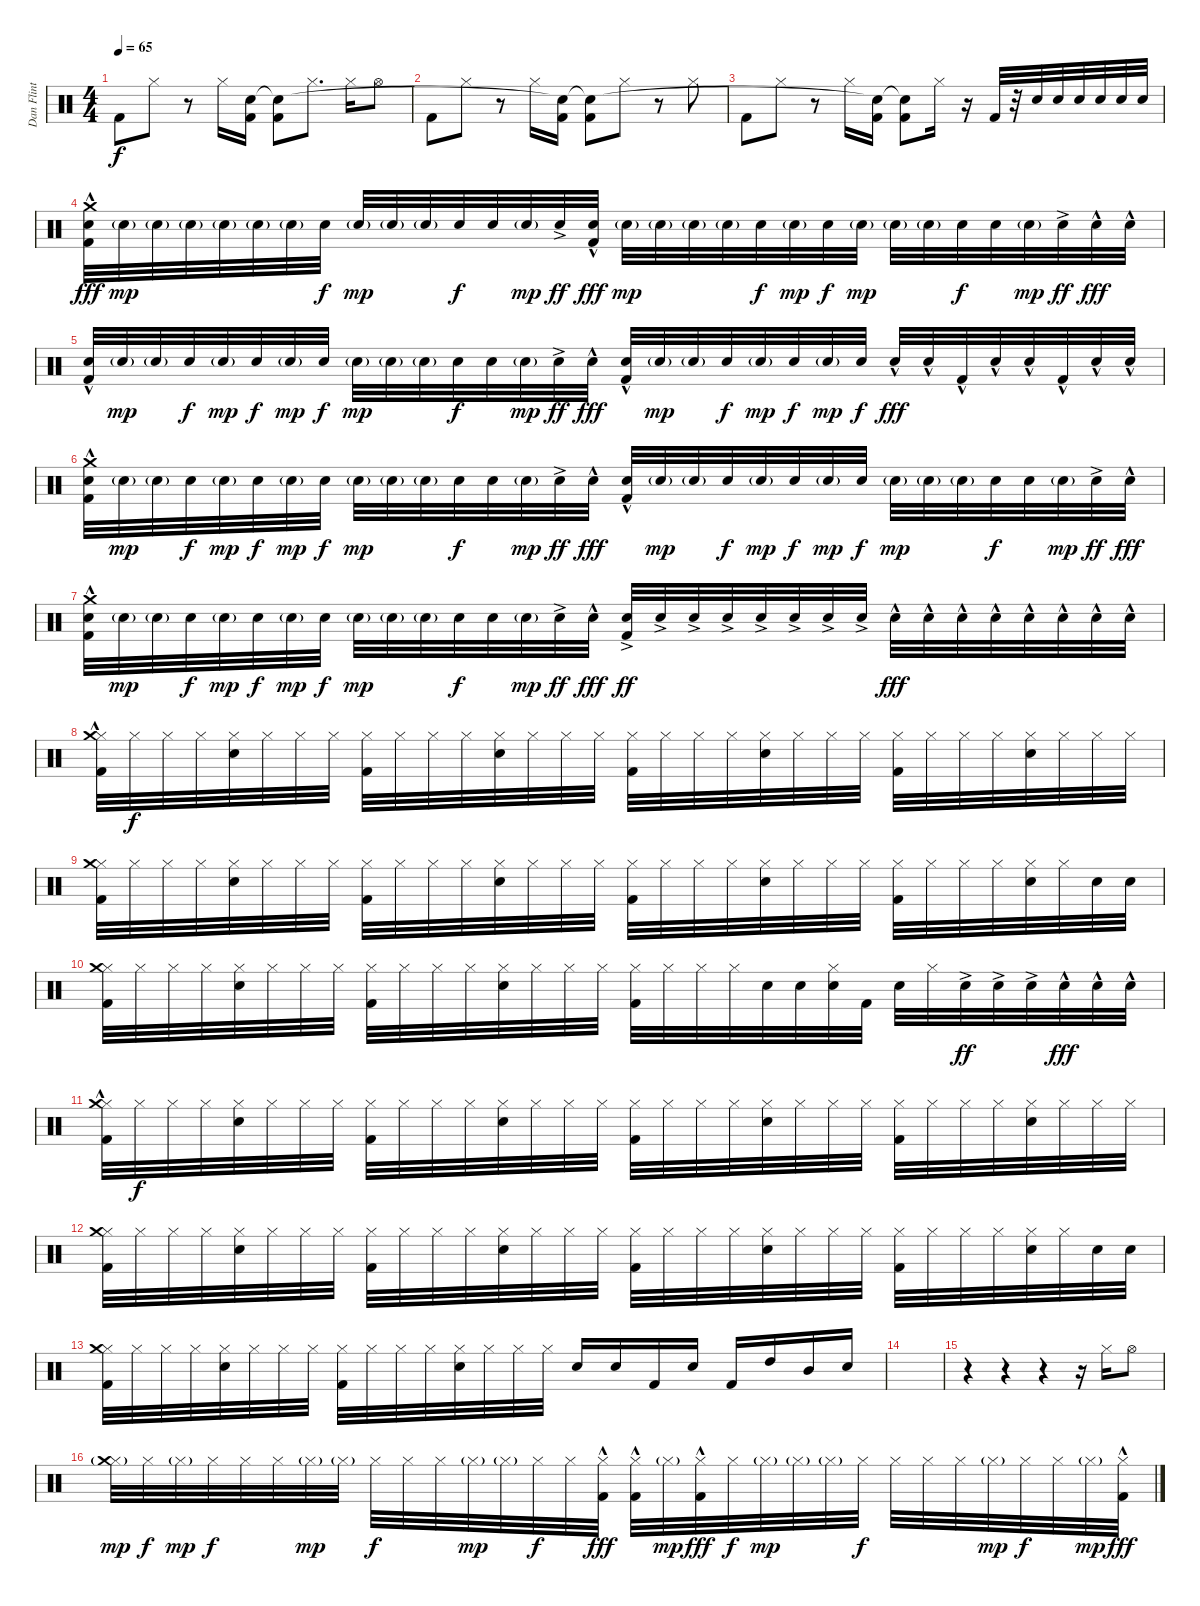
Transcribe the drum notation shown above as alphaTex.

\track ("Dan Flint" "Dan Flint") {instrument percussion}
\staff {score}
\articulation defaults
\ts (4 4)
\tempo 65
\clef neutral
\ks c "Kick (hit) 2".8{dy f} "Hi-Hat (closed)".8
r.8 "Hi-Hat (closed)".16 ("Kick (hit) 2" "Snare (hit)"{t}).16 ("Kick (hit) 2" "Snare (hit)"{t}).8 "Hi-Hat (closed)".8{d} "Hi-Hat (closed)".16 "Hi-Hat (open)".8 |
"Kick (hit) 2".8 "Hi-Hat (closed)".8 r.8 "Hi-Hat (closed)".16 ("Kick (hit) 2" "Snare (hit)"{t}).16 ("Kick (hit) 2" "Snare (hit)"{t}).8 "Hi-Hat (closed)".8 r.8 "Hi-Hat (closed)".8 |
"Kick (hit) 2".8 "Hi-Hat (closed)".8 r.8 "Hi-Hat (closed)".16 ("Kick (hit) 2" "Snare (hit)"{t}).16 ("Kick (hit) 2" "Snare (hit)"{t}).8 "Hi-Hat (closed)".16 r.16 "Kick (hit) 2".32 r.32 "Snare (hit) 2".32 "Snare (hit) 2".32 "Snare (hit) 2".32 "Snare (hit) 2".32 "Snare (hit) 2".32 "Snare (hit) 2".32 |
("Crash medium (hit)"{hac} "Snare (hit) 2"{hac} "Kick (hit) 2").32{dy fff} "Snare (hit) 2"{g}.32{dy mp} "Snare (hit) 2"{g}.32 "Snare (hit) 2"{g}.32 "Snare (hit) 2"{g}.32 "Snare (hit) 2"{g}.32 "Snare (hit) 2"{g}.32 "Snare (hit) 2".32{dy f} "Snare (hit) 2"{g}.32{dy mp} "Snare (hit) 2"{g}.32 "Snare (hit) 2"{g}.32 "Snare (hit) 2".32{dy f} "Snare (hit) 2".32 "Snare (hit) 2"{g}.32{dy mp} "Snare (hit) 2"{ac}.32{dy ff} ("Snare (hit) 2"{hac} "Kick (hit) 2").32{dy fff} "Snare (hit) 2"{g}.32{dy mp} "Snare (hit) 2"{g}.32 "Snare (hit) 2"{g}.32 "Snare (hit) 2"{g}.32 "Snare (hit) 2".32{dy f} "Snare (hit) 2"{g}.32{dy mp} "Snare (hit) 2".32{dy f} "Snare (hit) 2"{g}.32{dy mp} "Snare (hit) 2"{g}.32 "Snare (hit) 2"{g}.32 "Snare (hit) 2".32{dy f} "Snare (hit) 2".32 "Snare (hit) 2"{g}.32{dy mp} "Snare (hit) 2"{ac}.32{dy ff} "Snare (hit) 2"{hac}.32{dy fff} "Snare (hit) 2"{hac}.32 |
("Snare (hit) 2"{hac} "Kick (hit) 2").32 "Snare (hit) 2"{g}.32{dy mp} "Snare (hit) 2"{g}.32 "Snare (hit) 2".32{dy f} "Snare (hit) 2"{g}.32{dy mp} "Snare (hit) 2".32{dy f} "Snare (hit) 2"{g}.32{dy mp} "Snare (hit) 2".32{dy f} "Snare (hit) 2"{g}.32{dy mp} "Snare (hit) 2"{g}.32 "Snare (hit) 2"{g}.32 "Snare (hit) 2".32{dy f} "Snare (hit) 2".32 "Snare (hit) 2"{g}.32{dy mp} "Snare (hit) 2"{ac}.32{dy ff} "Snare (hit) 2"{hac}.32{dy fff} ("Snare (hit) 2"{hac} "Kick (hit) 2").32 "Snare (hit) 2"{g}.32{dy mp} "Snare (hit) 2"{g}.32 "Snare (hit) 2".32{dy f} "Snare (hit) 2"{g}.32{dy mp} "Snare (hit) 2".32{dy f} "Snare (hit) 2"{g}.32{dy mp} "Snare (hit) 2".32{dy f} "Snare (hit) 2"{hac}.32{dy fff} "Snare (hit) 2"{hac}.32 "Kick (hit) 2"{hac}.32 "Snare (hit) 2"{hac}.32 "Snare (hit) 2"{hac}.32 "Kick (hit) 2"{hac}.32 "Snare (hit) 2"{hac}.32 "Snare (hit) 2"{hac}.32 |
("Crash medium (hit)"{hac} "Snare (hit) 2"{hac} "Kick (hit) 2").32 "Snare (hit) 2"{g}.32{dy mp} "Snare (hit) 2"{g}.32 "Snare (hit) 2".32{dy f} "Snare (hit) 2"{g}.32{dy mp} "Snare (hit) 2".32{dy f} "Snare (hit) 2"{g}.32{dy mp} "Snare (hit) 2".32{dy f} "Snare (hit) 2"{g}.32{dy mp} "Snare (hit) 2"{g}.32 "Snare (hit) 2"{g}.32 "Snare (hit) 2".32{dy f} "Snare (hit) 2".32 "Snare (hit) 2"{g}.32{dy mp} "Snare (hit) 2"{ac}.32{dy ff} "Snare (hit) 2"{hac}.32{dy fff} ("Snare (hit) 2"{hac} "Kick (hit) 2").32 "Snare (hit) 2"{g}.32{dy mp} "Snare (hit) 2"{g}.32 "Snare (hit) 2".32{dy f} "Snare (hit) 2"{g}.32{dy mp} "Snare (hit) 2".32{dy f} "Snare (hit) 2"{g}.32{dy mp} "Snare (hit) 2".32{dy f} "Snare (hit) 2"{g}.32{dy mp} "Snare (hit) 2"{g}.32 "Snare (hit) 2"{g}.32 "Snare (hit) 2".32{dy f} "Snare (hit) 2".32 "Snare (hit) 2"{g}.32{dy mp} "Snare (hit) 2"{ac}.32{dy ff} "Snare (hit) 2"{hac}.32{dy fff} |
("Crash medium (hit)"{hac} "Snare (hit) 2"{hac} "Kick (hit) 2").32 "Snare (hit) 2"{g}.32{dy mp} "Snare (hit) 2"{g}.32 "Snare (hit) 2".32{dy f} "Snare (hit) 2"{g}.32{dy mp} "Snare (hit) 2".32{dy f} "Snare (hit) 2"{g}.32{dy mp} "Snare (hit) 2".32{dy f} "Snare (hit) 2"{g}.32{dy mp} "Snare (hit) 2"{g}.32 "Snare (hit) 2"{g}.32 "Snare (hit) 2".32{dy f} "Snare (hit) 2".32 "Snare (hit) 2"{g}.32{dy mp} "Snare (hit) 2"{ac}.32{dy ff} "Snare (hit) 2"{hac}.32{dy fff} ("Snare (hit) 2"{ac} "Kick (hit) 2"{ac}).32{dy ff} "Snare (hit) 2"{ac}.32 "Snare (hit) 2"{ac}.32 "Snare (hit) 2"{ac}.32 "Snare (hit) 2"{ac}.32 "Snare (hit) 2"{ac}.32 "Snare (hit) 2"{ac}.32 "Snare (hit) 2"{ac}.32 "Snare (hit) 2"{hac}.32{dy fff} "Snare (hit) 2"{hac}.32 "Snare (hit) 2"{hac}.32 "Snare (hit) 2"{hac}.32 "Snare (hit) 2"{hac}.32 "Snare (hit) 2"{hac}.32 "Snare (hit) 2"{hac}.32 "Snare (hit) 2"{hac}.32 |
("Hi-Hat (closed)" "Kick (hit) 2" "Crash medium (hit)"{hac}).32 "Hi-Hat (closed)".32{dy f} "Hi-Hat (closed)".32 "Hi-Hat (closed)".32 ("Hi-Hat (closed)" "Snare (hit) 2").32 "Hi-Hat (closed)".32 "Hi-Hat (closed)".32 "Hi-Hat (closed)".32 ("Hi-Hat (closed)" "Kick (hit) 2").32 "Hi-Hat (closed)".32 "Hi-Hat (closed)".32 "Hi-Hat (closed)".32 ("Hi-Hat (closed)" "Snare (hit) 2").32 "Hi-Hat (closed)".32 "Hi-Hat (closed)".32 "Hi-Hat (closed)".32 ("Hi-Hat (closed)" "Kick (hit) 2").32 "Hi-Hat (closed)".32 "Hi-Hat (closed)".32 "Hi-Hat (closed)".32 ("Hi-Hat (closed)" "Snare (hit) 2").32 "Hi-Hat (closed)".32 "Hi-Hat (closed)".32 "Hi-Hat (closed)".32 ("Hi-Hat (closed)" "Kick (hit) 2").32 "Hi-Hat (closed)".32 "Hi-Hat (closed)".32 "Hi-Hat (closed)".32 ("Hi-Hat (closed)" "Snare (hit) 2").32 "Hi-Hat (closed)".32 "Hi-Hat (closed)".32 "Hi-Hat (closed)".32 |
("Hi-Hat (closed)" "Kick (hit) 2" "Crash medium (hit)").32 "Hi-Hat (closed)".32 "Hi-Hat (closed)".32 "Hi-Hat (closed)".32 ("Hi-Hat (closed)" "Snare (hit) 2").32 "Hi-Hat (closed)".32 "Hi-Hat (closed)".32 "Hi-Hat (closed)".32 ("Hi-Hat (closed)" "Kick (hit) 2").32 "Hi-Hat (closed)".32 "Hi-Hat (closed)".32 "Hi-Hat (closed)".32 ("Hi-Hat (closed)" "Snare (hit) 2").32 "Hi-Hat (closed)".32 "Hi-Hat (closed)".32 "Hi-Hat (closed)".32 ("Hi-Hat (closed)" "Kick (hit) 2").32 "Hi-Hat (closed)".32 "Hi-Hat (closed)".32 "Hi-Hat (closed)".32 ("Hi-Hat (closed)" "Snare (hit) 2").32 "Hi-Hat (closed)".32 "Hi-Hat (closed)".32 "Hi-Hat (closed)".32 ("Hi-Hat (closed)" "Kick (hit) 2").32 "Hi-Hat (closed)".32 "Hi-Hat (closed)".32 "Hi-Hat (closed)".32 ("Hi-Hat (closed)" "Snare (hit) 2").32 "Hi-Hat (closed)".32 "Snare (hit) 2".32 "Snare (hit) 2".32 |
("Hi-Hat (closed)" "Kick (hit) 2" "Crash medium (hit)").32 "Hi-Hat (closed)".32 "Hi-Hat (closed)".32 "Hi-Hat (closed)".32 ("Hi-Hat (closed)" "Snare (hit) 2").32 "Hi-Hat (closed)".32 "Hi-Hat (closed)".32 "Hi-Hat (closed)".32 ("Hi-Hat (closed)" "Kick (hit) 2").32 "Hi-Hat (closed)".32 "Hi-Hat (closed)".32 "Hi-Hat (closed)".32 ("Hi-Hat (closed)" "Snare (hit) 2").32 "Hi-Hat (closed)".32 "Hi-Hat (closed)".32 "Hi-Hat (closed)".32 ("Hi-Hat (closed)" "Kick (hit) 2").32 "Hi-Hat (closed)".32 "Hi-Hat (closed)".32 "Hi-Hat (closed)".32 "Snare (hit) 2".32 "Snare (hit) 2".32 ("Hi-Hat (closed)" "Snare (hit) 2").32 "Kick (hit) 2".32 "Snare (hit) 2".32 "Hi-Hat (closed)".32 "Snare (hit) 2"{ac}.32{dy ff} "Snare (hit) 2"{ac}.32 "Snare (hit) 2"{ac}.32 "Snare (hit) 2"{hac}.32{dy fff} "Snare (hit) 2"{hac}.32 "Snare (hit) 2"{hac}.32 |
("Hi-Hat (closed)" "Kick (hit) 2" "Crash medium (hit)"{hac}).32 "Hi-Hat (closed)".32{dy f} "Hi-Hat (closed)".32 "Hi-Hat (closed)".32 ("Hi-Hat (closed)" "Snare (hit) 2").32 "Hi-Hat (closed)".32 "Hi-Hat (closed)".32 "Hi-Hat (closed)".32 ("Hi-Hat (closed)" "Kick (hit) 2").32 "Hi-Hat (closed)".32 "Hi-Hat (closed)".32 "Hi-Hat (closed)".32 ("Hi-Hat (closed)" "Snare (hit) 2").32 "Hi-Hat (closed)".32 "Hi-Hat (closed)".32 "Hi-Hat (closed)".32 ("Hi-Hat (closed)" "Kick (hit) 2").32 "Hi-Hat (closed)".32 "Hi-Hat (closed)".32 "Hi-Hat (closed)".32 ("Hi-Hat (closed)" "Snare (hit) 2").32 "Hi-Hat (closed)".32 "Hi-Hat (closed)".32 "Hi-Hat (closed)".32 ("Hi-Hat (closed)" "Kick (hit) 2").32 "Hi-Hat (closed)".32 "Hi-Hat (closed)".32 "Hi-Hat (closed)".32 ("Hi-Hat (closed)" "Snare (hit) 2").32 "Hi-Hat (closed)".32 "Hi-Hat (closed)".32 "Hi-Hat (closed)".32 |
("Hi-Hat (closed)" "Kick (hit) 2" "Crash medium (hit)").32 "Hi-Hat (closed)".32 "Hi-Hat (closed)".32 "Hi-Hat (closed)".32 ("Hi-Hat (closed)" "Snare (hit) 2").32 "Hi-Hat (closed)".32 "Hi-Hat (closed)".32 "Hi-Hat (closed)".32 ("Hi-Hat (closed)" "Kick (hit) 2").32 "Hi-Hat (closed)".32 "Hi-Hat (closed)".32 "Hi-Hat (closed)".32 ("Hi-Hat (closed)" "Snare (hit) 2").32 "Hi-Hat (closed)".32 "Hi-Hat (closed)".32 "Hi-Hat (closed)".32 ("Hi-Hat (closed)" "Kick (hit) 2").32 "Hi-Hat (closed)".32 "Hi-Hat (closed)".32 "Hi-Hat (closed)".32 ("Hi-Hat (closed)" "Snare (hit) 2").32 "Hi-Hat (closed)".32 "Hi-Hat (closed)".32 "Hi-Hat (closed)".32 ("Hi-Hat (closed)" "Kick (hit) 2").32 "Hi-Hat (closed)".32 "Hi-Hat (closed)".32 "Hi-Hat (closed)".32 ("Hi-Hat (closed)" "Snare (hit) 2").32 "Hi-Hat (closed)".32 "Snare (hit) 2".32 "Snare (hit) 2".32 |
("Hi-Hat (closed)" "Kick (hit) 2" "Crash medium (hit)").32 "Hi-Hat (closed)".32 "Hi-Hat (closed)".32 "Hi-Hat (closed)".32 ("Hi-Hat (closed)" "Snare (hit) 2").32 "Hi-Hat (closed)".32 "Hi-Hat (closed)".32 "Hi-Hat (closed)".32 ("Hi-Hat (closed)" "Kick (hit) 2").32 "Hi-Hat (closed)".32 "Hi-Hat (closed)".32 "Hi-Hat (closed)".32 ("Hi-Hat (closed)" "Snare (hit) 2").32 "Hi-Hat (closed)".32 "Hi-Hat (closed)".32 "Hi-Hat (closed)".32 "Snare (hit) 2".16 "Snare (hit) 2".16 "Kick (hit) 2".16 "Snare (hit) 2".16 "Kick (hit) 2".16 "High Tom (hit)".16 "Mid Tom (hit)".16 "Snare (hit) 2".16 |
|
r.4 r.4 r.4 r.16 "Hi-Hat (closed)".16 "Hi-Hat (open)".8 |
("Hi-Hat (closed)"{g} "Crash medium (hit)").32{dy mp} "Hi-Hat (closed)".32{dy f} "Hi-Hat (closed)"{g}.32{dy mp} "Hi-Hat (closed)".32{dy f} "Hi-Hat (closed)".32 "Hi-Hat (closed)".32 "Hi-Hat (closed)"{g}.32{dy mp} "Hi-Hat (closed)"{g}.32 "Hi-Hat (closed)".32{dy f} "Hi-Hat (closed)".32 "Hi-Hat (closed)".32 "Hi-Hat (closed)"{g}.32{dy mp} "Hi-Hat (closed)"{g}.32 "Hi-Hat (closed)".32{dy f} "Hi-Hat (closed)".32 ("Hi-Hat (closed)" "Kick (hit) 2"{hac}).32{dy fff} ("Hi-Hat (closed)" "Kick (hit) 2"{hac}).32 "Hi-Hat (closed)"{g}.32{dy mp} ("Hi-Hat (closed)" "Kick (hit) 2"{hac}).32{dy fff} "Hi-Hat (closed)".32{dy f} "Hi-Hat (closed)"{g}.32{dy mp} "Hi-Hat (closed)"{g}.32 "Hi-Hat (closed)"{g}.32 "Hi-Hat (closed)".32{dy f} "Hi-Hat (closed)".32 "Hi-Hat (closed)".32 "Hi-Hat (closed)".32 "Hi-Hat (closed)"{g}.32{dy mp} "Hi-Hat (closed)".32{dy f} "Hi-Hat (closed)".32 "Hi-Hat (closed)"{g}.32{dy mp} ("Hi-Hat (closed)" "Kick (hit) 2"{hac}).32{dy fff}
